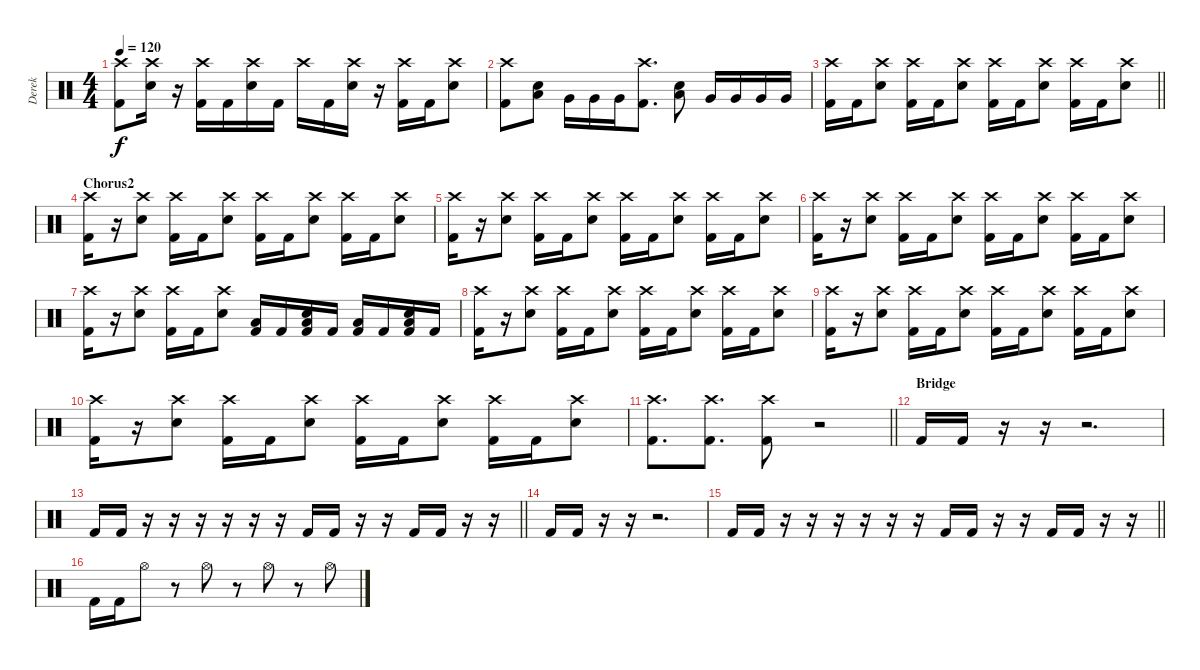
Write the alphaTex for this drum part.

\track ("Derek" "Derek") {instrument percussion}
\staff {score}
\articulation defaults
\ts (4 4)
\tempo 120
\clef neutral
\ks c
("Crash high (hit)" "Kick (hit) 2").8{dy f} ("Crash high (hit)" "Electric Snare (hit)").16 r.16 ("Crash high (hit)" "Kick (hit) 2").16 "Kick (hit) 2".16 ("Crash high (hit)" "Electric Snare (hit)").16 "Kick (hit) 2".16 "Crash high (hit)".16 "Kick (hit) 2".16 ("Crash high (hit)" "Electric Snare (hit)").16 r.16 ("Crash high (hit)" "Kick (hit) 2").16 "Kick (hit) 2".16 ("Crash high (hit)" "Electric Snare (hit)").8 |
("Crash high (hit)" "Kick (hit) 2").8 ("Electric Snare (hit)" "Low Floor Tom (hit)").8 "Very Low Tom (hit)".16 "Very Low Tom (hit)".16 "Very Low Tom (hit)".16 ("Crash high (hit)" "Kick (hit) 2").8{d} ("Electric Snare (hit)" "Low Floor Tom (hit)").8 "Very Low Tom (hit)".16 "Very Low Tom (hit)".16 "Very Low Tom (hit)".16 "Very Low Tom (hit)".16 |
\barLineRight lightlight
("Crash high (hit)" "Kick (hit) 2").16 "Kick (hit) 2".16 ("Crash high (hit)" "Electric Snare (hit)").8 ("Crash high (hit)" "Kick (hit) 2").16 "Kick (hit) 2".16 ("Crash high (hit)" "Electric Snare (hit)").8 ("Crash high (hit)" "Kick (hit) 2").16 "Kick (hit) 2".16 ("Crash high (hit)" "Electric Snare (hit)").8 ("Crash high (hit)" "Kick (hit) 2").16 "Kick (hit) 2".16 ("Crash high (hit)" "Electric Snare (hit)").8 |
\section ("" "Chorus2")
("Crash high (hit)" "Kick (hit) 2").16 r.16 ("Crash high (hit)" "Electric Snare (hit)").8 ("Crash high (hit)" "Kick (hit) 2").16 "Kick (hit) 2".16 ("Crash high (hit)" "Electric Snare (hit)").8 ("Crash high (hit)" "Kick (hit) 2").16 "Kick (hit) 2".16 ("Crash high (hit)" "Electric Snare (hit)").8 ("Crash high (hit)" "Kick (hit) 2").16 "Kick (hit) 2".16 ("Crash high (hit)" "Electric Snare (hit)").8 |
("Crash high (hit)" "Kick (hit) 2").16 r.16 ("Crash high (hit)" "Electric Snare (hit)").8 ("Crash high (hit)" "Kick (hit) 2").16 "Kick (hit) 2".16 ("Crash high (hit)" "Electric Snare (hit)").8 ("Crash high (hit)" "Kick (hit) 2").16 "Kick (hit) 2".16 ("Crash high (hit)" "Electric Snare (hit)").8 ("Crash high (hit)" "Kick (hit) 2").16 "Kick (hit) 2".16 ("Crash high (hit)" "Electric Snare (hit)").8 |
("Crash high (hit)" "Kick (hit) 2").16 r.16 ("Crash high (hit)" "Electric Snare (hit)").8 ("Crash high (hit)" "Kick (hit) 2").16 "Kick (hit) 2".16 ("Crash high (hit)" "Electric Snare (hit)").8 ("Crash high (hit)" "Kick (hit) 2").16 "Kick (hit) 2".16 ("Crash high (hit)" "Electric Snare (hit)").8 ("Crash high (hit)" "Kick (hit) 2").16 "Kick (hit) 2".16 ("Crash high (hit)" "Electric Snare (hit)").8 |
("Crash high (hit)" "Kick (hit) 2").16 r.16 ("Crash high (hit)" "Electric Snare (hit)").8 ("Crash high (hit)" "Kick (hit) 2").16 "Kick (hit) 2".16 ("Crash high (hit)" "Electric Snare (hit)").8 ("Low Floor Tom (hit)" "Kick (hit) 2").16 "Kick (hit) 2".16 ("Low Floor Tom (hit)" "Electric Snare (hit)" "Kick (hit) 2").16 "Kick (hit) 2".16 ("Low Floor Tom (hit)" "Kick (hit) 2").16 "Kick (hit) 2".16 ("Low Floor Tom (hit)" "Electric Snare (hit)" "Kick (hit) 2").16 "Kick (hit) 2".16 |
("Crash high (hit)" "Kick (hit) 2").16 r.16 ("Crash high (hit)" "Electric Snare (hit)").8 ("Crash high (hit)" "Kick (hit) 2").16 "Kick (hit) 2".16 ("Crash high (hit)" "Electric Snare (hit)").8 ("Crash high (hit)" "Kick (hit) 2").16 "Kick (hit) 2".16 ("Crash high (hit)" "Electric Snare (hit)").8 ("Crash high (hit)" "Kick (hit) 2").16 "Kick (hit) 2".16 ("Crash high (hit)" "Electric Snare (hit)").8 |
("Crash high (hit)" "Kick (hit) 2").16 r.16 ("Crash high (hit)" "Electric Snare (hit)").8 ("Crash high (hit)" "Kick (hit) 2").16 "Kick (hit) 2".16 ("Crash high (hit)" "Electric Snare (hit)").8 ("Crash high (hit)" "Kick (hit) 2").16 "Kick (hit) 2".16 ("Crash high (hit)" "Electric Snare (hit)").8 ("Crash high (hit)" "Kick (hit) 2").16 "Kick (hit) 2".16 ("Crash high (hit)" "Electric Snare (hit)").8 |
("Crash high (hit)" "Kick (hit) 2").16 r.16 ("Crash high (hit)" "Electric Snare (hit)").8 ("Crash high (hit)" "Kick (hit) 2").16 "Kick (hit) 2".16 ("Crash high (hit)" "Electric Snare (hit)").8 ("Crash high (hit)" "Kick (hit) 2").16 "Kick (hit) 2".16 ("Crash high (hit)" "Electric Snare (hit)").8 ("Crash high (hit)" "Kick (hit) 2").16 "Kick (hit) 2".16 ("Crash high (hit)" "Electric Snare (hit)").8 |
\barLineRight lightlight
("Crash high (hit)" "Kick (hit) 2").8{d} ("Crash high (hit)" "Kick (hit) 2").8{d} ("Crash high (hit)" "Kick (hit) 2").8 r.2 |
\section ("" "Bridge")
"Kick (hit) 2".16 "Kick (hit) 2".16 r.16 r.16 r.2{d} |
\barLineRight lightlight "Kick (hit) 2".16 "Kick (hit) 2".16
r.16 r.16 r.16 r.16 r.16 r.16 "Kick (hit) 2".16 "Kick (hit) 2".16 r.16 r.16 "Kick (hit) 2".16 "Kick (hit) 2".16 r.16 r.16 |
"Kick (hit) 2".16 "Kick (hit) 2".16 r.16 r.16 r.2{d} |
\barLineRight lightlight "Kick (hit) 2".16 "Kick (hit) 2".16
r.16 r.16 r.16 r.16 r.16 r.16 "Kick (hit) 2".16 "Kick (hit) 2".16 r.16 r.16 "Kick (hit) 2".16 "Kick (hit) 2".16 r.16 r.16 |
"Kick (hit) 2".16 "Kick (hit) 2".16 "Hi-Hat (open)".8 r.8 "Hi-Hat (open)".8 r.8 "Hi-Hat (open)".8 r.8 "Hi-Hat (open)".8
